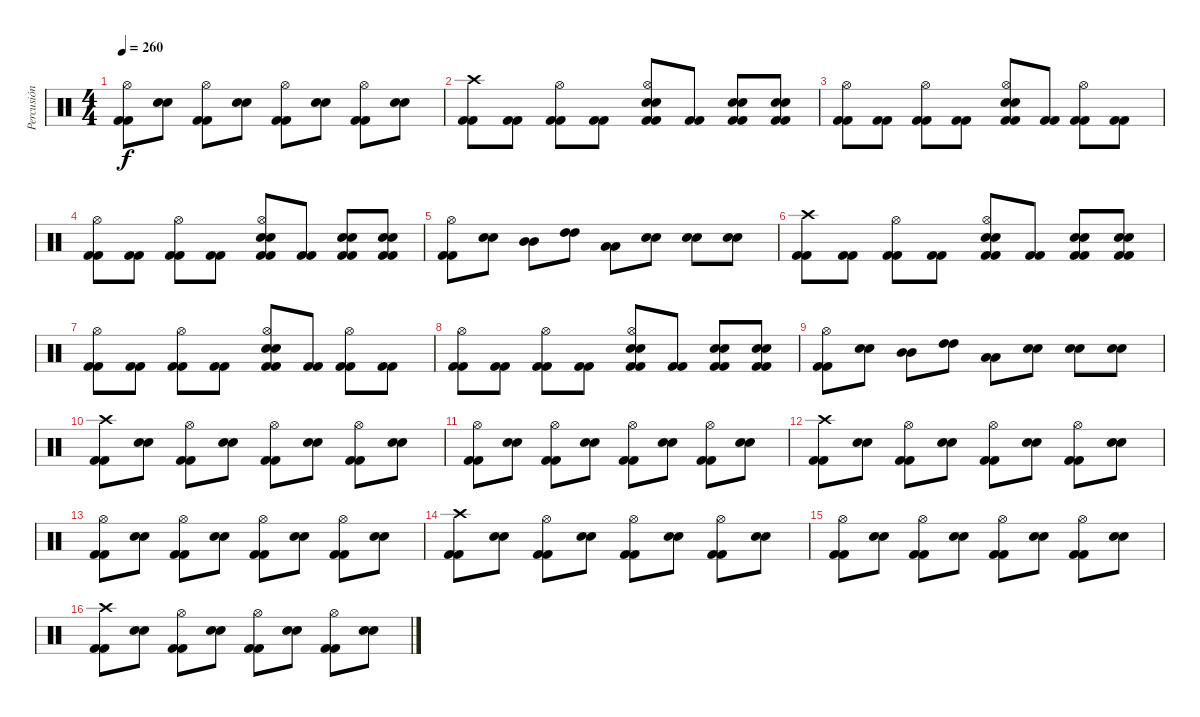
\track ("Percusión" "Percusión") {instrument percussion}
\staff {score}
\articulation defaults
\ts (4 4)
\tempo 260
\clef neutral
\ks c
("Kick (hit) 2" "Kick (hit) 2" "Hi-Hat (open)").8{dy f} ("Electric Snare (hit)" "Electric Snare (hit)").8 ("Kick (hit) 2" "Kick (hit) 2" "Hi-Hat (open)").8 ("Electric Snare (hit)" "Electric Snare (hit)").8 ("Kick (hit) 2" "Kick (hit) 2" "Hi-Hat (open)").8 ("Electric Snare (hit)" "Electric Snare (hit)").8 ("Kick (hit) 2" "Kick (hit) 2" "Hi-Hat (open)").8 ("Electric Snare (hit)" "Electric Snare (hit)").8 |
("Kick (hit) 2" "Kick (hit) 2" "Crash high (hit)").8 ("Kick (hit) 2" "Kick (hit) 2").8 ("Kick (hit) 2" "Kick (hit) 2" "Hi-Hat (open)").8 ("Kick (hit) 2" "Kick (hit) 2").8 ("Kick (hit) 2" "Kick (hit) 2" "Electric Snare (hit)" "Electric Snare (hit)" "Hi-Hat (open)").8 ("Kick (hit) 2" "Kick (hit) 2").8 ("Kick (hit) 2" "Kick (hit) 2" "Electric Snare (hit)" "Electric Snare (hit)").8 ("Kick (hit) 2" "Kick (hit) 2" "Electric Snare (hit)" "Electric Snare (hit)").8 |
("Kick (hit) 2" "Kick (hit) 2" "Hi-Hat (open)").8 ("Kick (hit) 2" "Kick (hit) 2").8 ("Kick (hit) 2" "Kick (hit) 2" "Hi-Hat (open)").8 ("Kick (hit) 2" "Kick (hit) 2").8 ("Kick (hit) 2" "Kick (hit) 2" "Electric Snare (hit)" "Electric Snare (hit)" "Hi-Hat (open)").8 ("Kick (hit) 2" "Kick (hit) 2").8 ("Kick (hit) 2" "Kick (hit) 2" "Hi-Hat (open)").8 ("Kick (hit) 2" "Kick (hit) 2").8 |
("Kick (hit) 2" "Kick (hit) 2" "Hi-Hat (open)").8 ("Kick (hit) 2" "Kick (hit) 2").8 ("Kick (hit) 2" "Kick (hit) 2" "Hi-Hat (open)").8 ("Kick (hit) 2" "Kick (hit) 2").8 ("Kick (hit) 2" "Kick (hit) 2" "Electric Snare (hit)" "Electric Snare (hit)" "Hi-Hat (open)").8 ("Kick (hit) 2" "Kick (hit) 2").8 ("Kick (hit) 2" "Kick (hit) 2" "Electric Snare (hit)" "Electric Snare (hit)").8 ("Kick (hit) 2" "Kick (hit) 2" "Electric Snare (hit)" "Electric Snare (hit)").8 |
("Kick (hit) 2" "Kick (hit) 2" "Hi-Hat (open)").8 ("Electric Snare (hit)" "Electric Snare (hit)").8 ("Mid Tom (hit)" "Mid Tom (hit)").8 ("High Tom (hit)" "High Tom (hit)").8 ("Low Floor Tom (hit)" "Low Floor Tom (hit)").8 ("Electric Snare (hit)" "Electric Snare (hit)").8 ("Electric Snare (hit)" "Electric Snare (hit)").8 ("Electric Snare (hit)" "Electric Snare (hit)").8 |
("Kick (hit) 2" "Kick (hit) 2" "Crash high (hit)").8 ("Kick (hit) 2" "Kick (hit) 2").8 ("Kick (hit) 2" "Kick (hit) 2" "Hi-Hat (open)").8 ("Kick (hit) 2" "Kick (hit) 2").8 ("Kick (hit) 2" "Kick (hit) 2" "Electric Snare (hit)" "Electric Snare (hit)" "Hi-Hat (open)").8 ("Kick (hit) 2" "Kick (hit) 2").8 ("Kick (hit) 2" "Kick (hit) 2" "Electric Snare (hit)" "Electric Snare (hit)").8 ("Kick (hit) 2" "Kick (hit) 2" "Electric Snare (hit)" "Electric Snare (hit)").8 |
("Kick (hit) 2" "Kick (hit) 2" "Hi-Hat (open)").8 ("Kick (hit) 2" "Kick (hit) 2").8 ("Kick (hit) 2" "Kick (hit) 2" "Hi-Hat (open)").8 ("Kick (hit) 2" "Kick (hit) 2").8 ("Kick (hit) 2" "Kick (hit) 2" "Electric Snare (hit)" "Electric Snare (hit)" "Hi-Hat (open)").8 ("Kick (hit) 2" "Kick (hit) 2").8 ("Kick (hit) 2" "Kick (hit) 2" "Hi-Hat (open)").8 ("Kick (hit) 2" "Kick (hit) 2").8 |
("Kick (hit) 2" "Kick (hit) 2" "Hi-Hat (open)").8 ("Kick (hit) 2" "Kick (hit) 2").8 ("Kick (hit) 2" "Kick (hit) 2" "Hi-Hat (open)").8 ("Kick (hit) 2" "Kick (hit) 2").8 ("Kick (hit) 2" "Kick (hit) 2" "Electric Snare (hit)" "Electric Snare (hit)" "Hi-Hat (open)").8 ("Kick (hit) 2" "Kick (hit) 2").8 ("Kick (hit) 2" "Kick (hit) 2" "Electric Snare (hit)" "Electric Snare (hit)").8 ("Kick (hit) 2" "Kick (hit) 2" "Electric Snare (hit)" "Electric Snare (hit)").8 |
("Kick (hit) 2" "Kick (hit) 2" "Hi-Hat (open)").8 ("Electric Snare (hit)" "Electric Snare (hit)").8 ("Mid Tom (hit)" "Mid Tom (hit)").8 ("High Tom (hit)" "High Tom (hit)").8 ("Low Floor Tom (hit)" "Low Floor Tom (hit)").8 ("Electric Snare (hit)" "Electric Snare (hit)").8 ("Electric Snare (hit)" "Electric Snare (hit)").8 ("Electric Snare (hit)" "Electric Snare (hit)").8 |
("Kick (hit) 2" "Kick (hit) 2" "Crash high (hit)").8 ("Electric Snare (hit)" "Electric Snare (hit)").8 ("Kick (hit) 2" "Kick (hit) 2" "Hi-Hat (open)").8 ("Electric Snare (hit)" "Electric Snare (hit)").8 ("Kick (hit) 2" "Kick (hit) 2" "Hi-Hat (open)").8 ("Electric Snare (hit)" "Electric Snare (hit)").8 ("Kick (hit) 2" "Kick (hit) 2" "Hi-Hat (open)").8 ("Electric Snare (hit)" "Electric Snare (hit)").8 |
("Kick (hit) 2" "Kick (hit) 2" "Hi-Hat (open)").8 ("Electric Snare (hit)" "Electric Snare (hit)").8 ("Kick (hit) 2" "Kick (hit) 2" "Hi-Hat (open)").8 ("Electric Snare (hit)" "Electric Snare (hit)").8 ("Kick (hit) 2" "Kick (hit) 2" "Hi-Hat (open)").8 ("Electric Snare (hit)" "Electric Snare (hit)").8 ("Kick (hit) 2" "Kick (hit) 2" "Hi-Hat (open)").8 ("Electric Snare (hit)" "Electric Snare (hit)").8 |
("Kick (hit) 2" "Kick (hit) 2" "Crash high (hit)").8 ("Electric Snare (hit)" "Electric Snare (hit)").8 ("Kick (hit) 2" "Kick (hit) 2" "Hi-Hat (open)").8 ("Electric Snare (hit)" "Electric Snare (hit)").8 ("Kick (hit) 2" "Kick (hit) 2" "Hi-Hat (open)").8 ("Electric Snare (hit)" "Electric Snare (hit)").8 ("Kick (hit) 2" "Kick (hit) 2" "Hi-Hat (open)").8 ("Electric Snare (hit)" "Electric Snare (hit)").8 |
("Kick (hit) 2" "Kick (hit) 2" "Hi-Hat (open)").8 ("Electric Snare (hit)" "Electric Snare (hit)").8 ("Kick (hit) 2" "Kick (hit) 2" "Hi-Hat (open)").8 ("Electric Snare (hit)" "Electric Snare (hit)").8 ("Kick (hit) 2" "Kick (hit) 2" "Hi-Hat (open)").8 ("Electric Snare (hit)" "Electric Snare (hit)").8 ("Kick (hit) 2" "Kick (hit) 2" "Hi-Hat (open)").8 ("Electric Snare (hit)" "Electric Snare (hit)").8 |
("Kick (hit) 2" "Kick (hit) 2" "Crash high (hit)").8 ("Electric Snare (hit)" "Electric Snare (hit)").8 ("Kick (hit) 2" "Kick (hit) 2" "Hi-Hat (open)").8 ("Electric Snare (hit)" "Electric Snare (hit)").8 ("Kick (hit) 2" "Kick (hit) 2" "Hi-Hat (open)").8 ("Electric Snare (hit)" "Electric Snare (hit)").8 ("Kick (hit) 2" "Kick (hit) 2" "Hi-Hat (open)").8 ("Electric Snare (hit)" "Electric Snare (hit)").8 |
("Kick (hit) 2" "Kick (hit) 2" "Hi-Hat (open)").8 ("Electric Snare (hit)" "Electric Snare (hit)").8 ("Kick (hit) 2" "Kick (hit) 2" "Hi-Hat (open)").8 ("Electric Snare (hit)" "Electric Snare (hit)").8 ("Kick (hit) 2" "Kick (hit) 2" "Hi-Hat (open)").8 ("Electric Snare (hit)" "Electric Snare (hit)").8 ("Kick (hit) 2" "Kick (hit) 2" "Hi-Hat (open)").8 ("Electric Snare (hit)" "Electric Snare (hit)").8 |
("Kick (hit) 2" "Kick (hit) 2" "Crash high (hit)").8 ("Electric Snare (hit)" "Electric Snare (hit)").8 ("Kick (hit) 2" "Kick (hit) 2" "Hi-Hat (open)").8 ("Electric Snare (hit)" "Electric Snare (hit)").8 ("Kick (hit) 2" "Kick (hit) 2" "Hi-Hat (open)").8 ("Electric Snare (hit)" "Electric Snare (hit)").8 ("Kick (hit) 2" "Kick (hit) 2" "Hi-Hat (open)").8 ("Electric Snare (hit)" "Electric Snare (hit)").8
